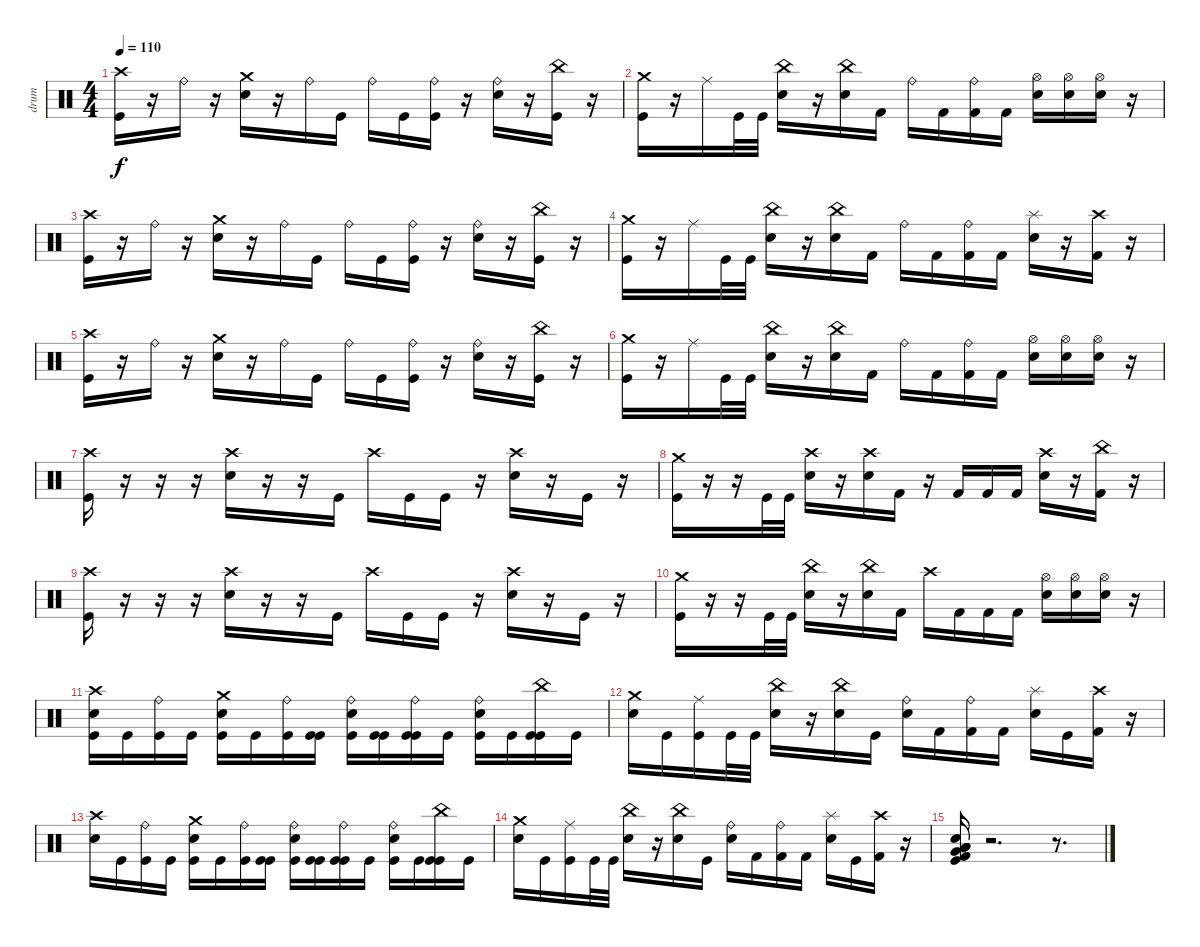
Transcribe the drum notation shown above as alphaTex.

\track ("drum" "drum") {instrument percussion}
\staff {score}
\articulation defaults
\ts (4 4)
\tempo 110
\clef neutral
\ks c
("Crash high (hit)" "Kick (hit)").16{dy f} r.16 "Ride (bell)".16 r.16 ("Crash medium (hit)" "Snare (hit) 2").16 r.16 "Ride (bell)".16 "Kick (hit)".16 "Ride (bell)".16 "Kick (hit)".16 ("Ride (bell)" "Kick (hit)").16 r.16 ("Ride (bell)" "Snare (hit) 2").16 r.16 ("China (hit)" "Kick (hit)").16 r.16 |
("Crash medium (hit)" "Kick (hit)").16 r.16 "Ride (middle)".16 "Kick (hit)".32 "Kick (hit)".32 ("China (hit)" "Snare (hit) 2").16 r.16 ("China (hit)" "Snare (hit) 2").16 "Kick (hit) 2".16 "Ride (bell)".16 "Kick (hit) 2".16 ("Ride (bell)" "Kick (hit) 2").16 "Kick (hit) 2".16 ("Hi-Hat (open)" "Snare (hit) 2").16 ("Hi-Hat (open)" "Snare (hit) 2").16 ("Hi-Hat (open)" "Snare (hit) 2").16 r.16 |
("Crash high (hit)" "Kick (hit)").16 r.16 "Ride (bell)".16 r.16 ("Crash medium (hit)" "Snare (hit) 2").16 r.16 "Ride (bell)".16 "Kick (hit)".16 "Ride (bell)".16 "Kick (hit)".16 ("Ride (bell)" "Kick (hit)").16 r.16 ("Ride (bell)" "Snare (hit) 2").16 r.16 ("China (hit)" "Kick (hit)").16 r.16 |
("Crash medium (hit)" "Kick (hit)").16 r.16 "Ride (middle)".16 "Kick (hit)".32 "Kick (hit)".32 ("China (hit)" "Snare (hit) 2").16 r.16 ("China (hit)" "Snare (hit) 2").16 "Kick (hit) 2".16 "Ride (bell)".16 "Kick (hit) 2".16 ("Ride (bell)" "Kick (hit) 2").16 "Kick (hit) 2".16 ("Splash (hit)" "Snare (hit) 2").16 r.16 ("Crash high (hit)" "Kick (hit) 2").16 r.16 |
("Crash high (hit)" "Kick (hit)").16 r.16 "Ride (bell)".16 r.16 ("Crash medium (hit)" "Snare (hit) 2").16 r.16 "Ride (bell)".16 "Kick (hit)".16 "Ride (bell)".16 "Kick (hit)".16 ("Ride (bell)" "Kick (hit)").16 r.16 ("Ride (bell)" "Snare (hit) 2").16 r.16 ("China (hit)" "Kick (hit)").16 r.16 |
("Crash medium (hit)" "Kick (hit)").16 r.16 "Ride (middle)".16 "Kick (hit)".32 "Kick (hit)".32 ("China (hit)" "Snare (hit) 2").16 r.16 ("China (hit)" "Snare (hit) 2").16 "Kick (hit) 2".16 "Ride (bell)".16 "Kick (hit) 2".16 ("Ride (bell)" "Kick (hit) 2").16 "Kick (hit) 2".16 ("Hi-Hat (open)" "Snare (hit) 2").16 ("Hi-Hat (open)" "Snare (hit) 2").16 ("Hi-Hat (open)" "Snare (hit) 2").16 r.16 |
("Crash high (hit)" "Kick (hit)").16 r.16 r.16 r.16 ("Crash high (hit)" "Snare (hit) 2").16 r.16 r.16 "Kick (hit)".16 "Crash high (hit)".16 "Kick (hit)".16 "Kick (hit)".16 r.16 ("Crash high (hit)" "Snare (hit) 2").16 r.16 "Kick (hit)".16 r.16 |
("Crash medium (hit)" "Kick (hit)").16 r.16 r.16 "Kick (hit)".32 "Kick (hit)".32 ("Crash high (hit)" "Snare (hit) 2").16 r.16 ("Crash high (hit)" "Snare (hit) 2").16 "Kick (hit) 2".16 r.16 "Kick (hit) 2".16 "Kick (hit) 2".16 "Kick (hit) 2".16 ("Crash high (hit)" "Snare (hit) 2").16 r.16 ("China (hit)" "Kick (hit) 2").16 r.16 |
("Crash high (hit)" "Kick (hit)").16 r.16 r.16 r.16 ("Crash high (hit)" "Snare (hit) 2").16 r.16 r.16 "Kick (hit)".16 "Crash high (hit)".16 "Kick (hit)".16 "Kick (hit)".16 r.16 ("Crash high (hit)" "Snare (hit) 2").16 r.16 "Kick (hit)".16 r.16 |
("Crash medium (hit)" "Kick (hit)").16 r.16 r.16 "Kick (hit)".32 "Kick (hit)".32 ("China (hit)" "Snare (hit) 2").16 r.16 ("China (hit)" "Snare (hit) 2").16 "Kick (hit) 2".16 "Crash high (hit)".16 "Kick (hit) 2".16 "Kick (hit) 2".16 "Kick (hit) 2".16 ("Hi-Hat (open)" "Snare (hit) 2").16 ("Hi-Hat (open)" "Snare (hit) 2").16 ("Hi-Hat (open)" "Snare (hit) 2").16 r.16 |
("Crash high (hit)" "Snare (hit) 2" "Kick (hit)").16 "Kick (hit)".16 ("Ride (bell)" "Kick (hit)").16 "Kick (hit)".16 ("Crash medium (hit)" "Snare (hit) 2" "Kick (hit)").16 "Kick (hit)".16 ("Ride (bell)" "Kick (hit)").16 ("Kick (hit)" "Kick (hit)").16 ("Ride (bell)" "Snare (hit) 2" "Kick (hit)").16 ("Kick (hit)" "Kick (hit)").16 ("Ride (bell)" "Kick (hit)" "Kick (hit)").16 "Kick (hit)".16 ("Ride (bell)" "Snare (hit) 2" "Kick (hit)").16 "Kick (hit)".16 ("China (hit)" "Kick (hit)" "Kick (hit)").16 "Kick (hit)".16 |
("Crash medium (hit)" "Snare (hit) 2").16 "Kick (hit)".16 ("Ride (middle)" "Kick (hit)").16 "Kick (hit)".32 "Kick (hit)".32 ("China (hit)" "Snare (hit) 2").16 r.16 ("China (hit)" "Snare (hit) 2").16 "Kick (hit)".16 ("Ride (bell)" "Snare (hit) 2").16 "Kick (hit) 2".16 ("Ride (bell)" "Kick (hit) 2").16 "Kick (hit) 2".16 ("Splash (hit)" "Snare (hit) 2").16 "Kick (hit)".16 ("Crash high (hit)" "Kick (hit) 2").16 r.16 |
("Crash high (hit)" "Snare (hit) 2").16 "Kick (hit)".16 ("Ride (bell)" "Kick (hit)").16 "Kick (hit)".16 ("Crash medium (hit)" "Snare (hit) 2" "Kick (hit)").16 "Kick (hit)".16 ("Ride (bell)" "Kick (hit)").16 ("Kick (hit)" "Kick (hit)").16 ("Ride (bell)" "Snare (hit) 2" "Kick (hit)").16 ("Kick (hit)" "Kick (hit)").16 ("Ride (bell)" "Kick (hit)" "Kick (hit)").16 "Kick (hit)".16 ("Ride (bell)" "Snare (hit) 2" "Kick (hit)").16 "Kick (hit)".16 ("China (hit)" "Kick (hit)" "Kick (hit)").16 "Kick (hit)".16 |
("Crash medium (hit)" "Snare (hit) 2").16 "Kick (hit)".16 ("Ride (middle)" "Kick (hit)").16 "Kick (hit)".32 "Kick (hit)".32 ("China (hit)" "Snare (hit) 2").16 r.16 ("China (hit)" "Snare (hit) 2").16 "Kick (hit)".16 ("Ride (bell)" "Snare (hit) 2").16 "Kick (hit) 2".16 ("Ride (bell)" "Kick (hit) 2").16 "Kick (hit) 2".16 ("Splash (hit)" "Snare (hit) 2").16 "Kick (hit)".16 ("Crash high (hit)" "Kick (hit) 2").16 r.16 |
("Snare (hit) 2" "Kick (hit) 2" "Kick (hit)" "Low Floor Tom (hit)" "Low Tom (hit)" "Very Low Tom (hit)").16 r.2{d} r.8{d}
